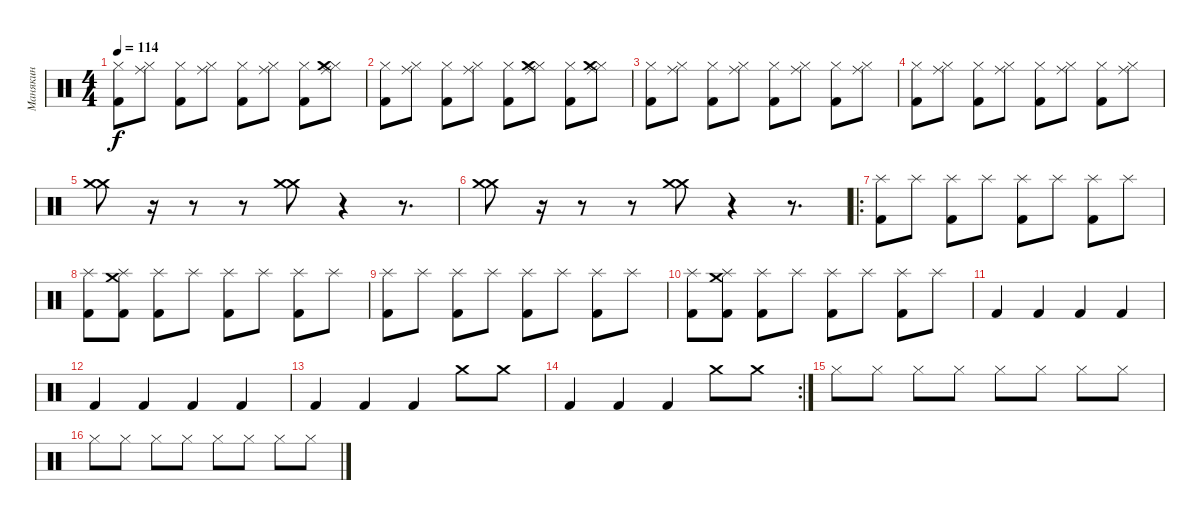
\track ("Манякин" "Манякин") {instrument percussion}
\staff {score}
\articulation defaults
\ts (4 4)
\tempo 114
\clef neutral
\ks c
("Kick (hit) 2" "Hi-Hat (closed)").8{dy f} ("Hi-Hat (closed)" "Ride (middle)").8 ("Kick (hit) 2" "Hi-Hat (closed)").8 ("Hi-Hat (closed)" "Ride (middle)").8 ("Kick (hit) 2" "Hi-Hat (closed)").8 ("Hi-Hat (closed)" "Ride (middle)").8 ("Kick (hit) 2" "Hi-Hat (closed)").8 ("Hi-Hat (closed)" "Ride (middle)" "Crash medium (hit)").8 |
("Kick (hit) 2" "Hi-Hat (closed)").8 ("Hi-Hat (closed)" "Ride (middle)").8 ("Kick (hit) 2" "Hi-Hat (closed)").8 ("Hi-Hat (closed)" "Ride (middle)").8 ("Kick (hit) 2" "Hi-Hat (closed)").8 ("Hi-Hat (closed)" "Ride (middle)" "Crash medium (hit)").8 ("Kick (hit) 2" "Hi-Hat (closed)").8 ("Hi-Hat (closed)" "Ride (middle)" "Crash medium (hit)").8 |
("Kick (hit) 2" "Hi-Hat (closed)").8 ("Hi-Hat (closed)" "Ride (middle)").8 ("Kick (hit) 2" "Hi-Hat (closed)").8 ("Hi-Hat (closed)" "Ride (middle)").8 ("Kick (hit) 2" "Hi-Hat (closed)").8 ("Hi-Hat (closed)" "Ride (middle)").8 ("Kick (hit) 2" "Hi-Hat (closed)").8 ("Hi-Hat (closed)" "Ride (middle)").8 |
("Kick (hit) 2" "Hi-Hat (closed)").8 ("Hi-Hat (closed)" "Ride (middle)").8 ("Kick (hit) 2" "Hi-Hat (closed)").8 ("Hi-Hat (closed)" "Ride (middle)").8 ("Kick (hit) 2" "Hi-Hat (closed)").8 ("Hi-Hat (closed)" "Ride (middle)").8 ("Kick (hit) 2" "Hi-Hat (closed)").8 ("Hi-Hat (closed)" "Ride (middle)").8 |
("Crash medium (hit)" "Crash medium (hit)").8 r.16 r.8 r.8 ("Crash medium (hit)" "Crash medium (hit)").8 r.4 r.8{d} |
("Crash medium (hit)" "Crash medium (hit)").8 r.16 r.8 r.8 ("Crash medium (hit)" "Crash medium (hit)").8 r.4 r.8{d} |
\ro
("Kick (hit) 2" "Splash (hit)").8 "Splash (hit)".8 ("Kick (hit) 2" "Splash (hit)").8 "Splash (hit)".8 ("Kick (hit) 2" "Splash (hit)").8 "Splash (hit)".8 ("Kick (hit) 2" "Splash (hit)").8 "Splash (hit)".8 |
("Kick (hit) 2" "Splash (hit)").8 ("Kick (hit) 2" "Crash medium (hit)" "Splash (hit)").8 ("Kick (hit) 2" "Splash (hit)").8 "Splash (hit)".8 ("Kick (hit) 2" "Splash (hit)").8 "Splash (hit)".8 ("Kick (hit) 2" "Splash (hit)").8 "Splash (hit)".8 |
("Kick (hit) 2" "Splash (hit)").8 "Splash (hit)".8 ("Kick (hit) 2" "Splash (hit)").8 "Splash (hit)".8 ("Kick (hit) 2" "Splash (hit)").8 "Splash (hit)".8 ("Kick (hit) 2" "Splash (hit)").8 "Splash (hit)".8 |
("Kick (hit) 2" "Splash (hit)").8 ("Kick (hit) 2" "Crash medium (hit)" "Splash (hit)").8 ("Kick (hit) 2" "Splash (hit)").8 "Splash (hit)".8 ("Kick (hit) 2" "Splash (hit)").8 "Splash (hit)".8 ("Kick (hit) 2" "Splash (hit)").8 "Splash (hit)".8 |
"Kick (hit) 2".4 "Kick (hit) 2".4 "Kick (hit) 2".4 "Kick (hit) 2".4 |
"Kick (hit) 2".4 "Kick (hit) 2".4 "Kick (hit) 2".4 "Kick (hit) 2".4 |
"Kick (hit) 2".4 "Kick (hit) 2".4 "Kick (hit) 2".4 "Crash medium (hit)".8 "Crash medium (hit)".8 |
\rc 2 "Kick (hit) 2".4 "Kick (hit) 2".4 "Kick (hit) 2".4 "Crash medium (hit)".8 "Crash medium (hit)".8
|
"Hi-Hat (closed)".8 "Hi-Hat (closed)".8 "Hi-Hat (closed)".8 "Hi-Hat (closed)".8 "Hi-Hat (closed)".8 "Hi-Hat (closed)".8 "Hi-Hat (closed)".8 "Hi-Hat (closed)".8 |
"Hi-Hat (closed)".8 "Hi-Hat (closed)".8 "Hi-Hat (closed)".8 "Hi-Hat (closed)".8 "Hi-Hat (closed)".8 "Hi-Hat (closed)".8 "Hi-Hat (closed)".8 "Hi-Hat (closed)".8
